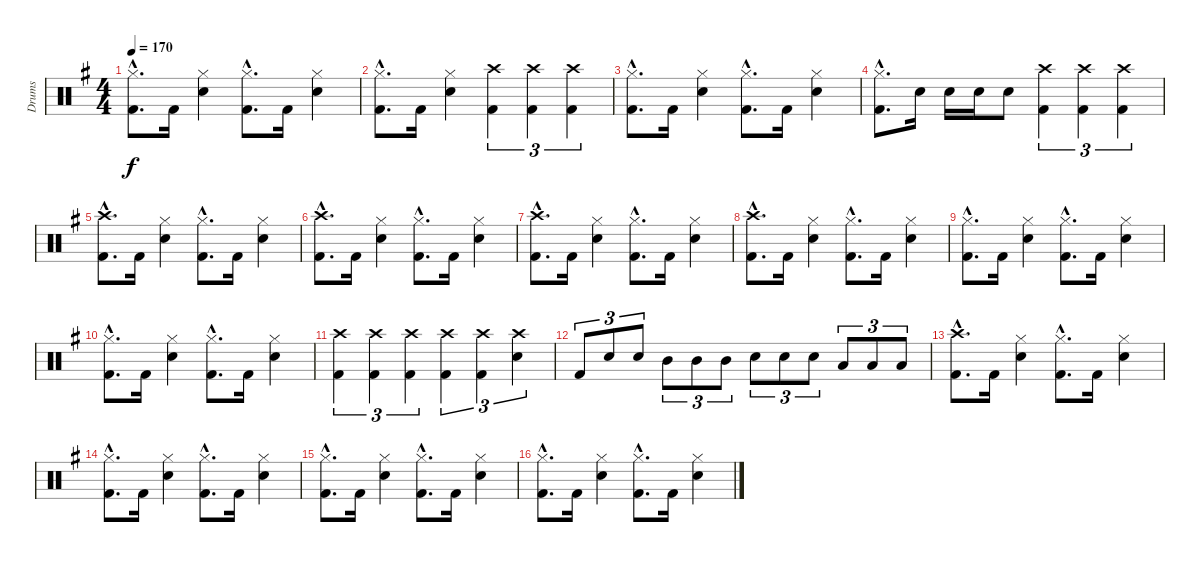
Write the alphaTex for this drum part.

\track ("Drums" "Drums") {instrument percussion}
\staff {score}
\articulation defaults
\ts (4 4)
\tempo 170
\clef neutral
\ks eminor
("Hi-Hat (closed)"{hac} "Kick (hit) 2"{hac}).8{d dy f} "Kick (hit) 2".16 ("Hi-Hat (closed)" "Snare (hit) 2").4 ("Hi-Hat (closed)"{hac} "Kick (hit) 2"{hac}).8{d} "Kick (hit) 2".16 ("Hi-Hat (closed)" "Snare (hit) 2").4 |
("Hi-Hat (closed)"{hac} "Kick (hit) 2"{hac}).8{d} "Kick (hit) 2".16 ("Hi-Hat (closed)" "Snare (hit) 2").4 ("Crash high (hit)" "Kick (hit) 2").4{tu (3 2)} ("Crash high (hit)" "Kick (hit) 2").4{tu (3 2)} ("Crash high (hit)" "Kick (hit) 2").4{tu (3 2)} |
("Hi-Hat (closed)"{hac} "Kick (hit) 2"{hac}).8{d} "Kick (hit) 2".16 ("Hi-Hat (closed)" "Snare (hit) 2").4 ("Hi-Hat (closed)"{hac} "Kick (hit) 2"{hac}).8{d} "Kick (hit) 2".16 ("Hi-Hat (closed)" "Snare (hit) 2").4 |
("Hi-Hat (closed)"{hac} "Kick (hit) 2"{hac}).8{d} "Snare (hit) 2".16 "Snare (hit) 2".16 "Snare (hit) 2".16 "Snare (hit) 2".8 ("Crash high (hit)" "Kick (hit) 2").4{tu (3 2)} ("Crash high (hit)" "Kick (hit) 2").4{tu (3 2)} ("Crash high (hit)" "Kick (hit) 2").4{tu (3 2)} |
("Crash high (hit)"{hac} "Kick (hit) 2"{hac}).8{d} "Kick (hit) 2".16 ("Hi-Hat (closed)" "Snare (hit) 2").4 ("Hi-Hat (closed)"{hac} "Kick (hit) 2"{hac}).8{d} "Kick (hit) 2".16 ("Hi-Hat (closed)" "Snare (hit) 2").4 |
("Crash high (hit)"{hac} "Kick (hit) 2"{hac}).8{d} "Kick (hit) 2".16 ("Hi-Hat (closed)" "Snare (hit) 2").4 ("Hi-Hat (closed)"{hac} "Kick (hit) 2"{hac}).8{d} "Kick (hit) 2".16 ("Hi-Hat (closed)" "Snare (hit) 2").4 |
("Crash high (hit)"{hac} "Kick (hit) 2"{hac}).8{d} "Kick (hit) 2".16 ("Hi-Hat (closed)" "Snare (hit) 2").4 ("Hi-Hat (closed)"{hac} "Kick (hit) 2"{hac}).8{d} "Kick (hit) 2".16 ("Hi-Hat (closed)" "Snare (hit) 2").4 |
("Crash high (hit)"{hac} "Kick (hit) 2"{hac}).8{d} "Kick (hit) 2".16 ("Hi-Hat (closed)" "Snare (hit) 2").4 ("Hi-Hat (closed)"{hac} "Kick (hit) 2"{hac}).8{d} "Kick (hit) 2".16 ("Hi-Hat (closed)" "Snare (hit) 2").4 |
("Hi-Hat (closed)"{hac} "Kick (hit) 2"{hac}).8{d} "Kick (hit) 2".16 ("Hi-Hat (closed)" "Snare (hit) 2").4 ("Hi-Hat (closed)"{hac} "Kick (hit) 2"{hac}).8{d} "Kick (hit) 2".16 ("Hi-Hat (closed)" "Snare (hit) 2").4 |
("Hi-Hat (closed)"{hac} "Kick (hit) 2"{hac}).8{d} "Kick (hit) 2".16 ("Hi-Hat (closed)" "Snare (hit) 2").4 ("Hi-Hat (closed)"{hac} "Kick (hit) 2"{hac}).8{d} "Kick (hit) 2".16 ("Hi-Hat (closed)" "Snare (hit) 2").4 |
("Crash high (hit)" "Kick (hit) 2").4{tu (3 2)} ("Crash high (hit)" "Kick (hit) 2").4{tu (3 2)} ("Crash high (hit)" "Kick (hit) 2").4{tu (3 2)} ("Crash high (hit)" "Kick (hit) 2").4{tu (3 2)} ("Crash high (hit)" "Kick (hit) 2").4{tu (3 2)} ("Crash high (hit)" "Snare (hit) 2").4{tu (3 2)} |
"Kick (hit) 2".8{tu (3 2)} "Snare (hit) 2".8{tu (3 2)} "Snare (hit) 2".8{tu (3 2)} "Mid Tom (hit)".8{tu (3 2)} "Mid Tom (hit)".8{tu (3 2)} "Mid Tom (hit)".8{tu (3 2)} "Snare (hit) 2".8{tu (3 2)} "Snare (hit) 2".8{tu (3 2)} "Snare (hit) 2".8{tu (3 2)} "Low Floor Tom (hit)".8{tu (3 2)} "Low Floor Tom (hit)".8{tu (3 2)} "Low Floor Tom (hit)".8{tu (3 2)} |
("Crash high (hit)"{hac} "Kick (hit) 2"{hac}).8{d} "Kick (hit) 2".16 ("Hi-Hat (closed)" "Snare (hit) 2").4 ("Hi-Hat (closed)"{hac} "Kick (hit) 2"{hac}).8{d} "Kick (hit) 2".16 ("Hi-Hat (closed)" "Snare (hit) 2").4 |
("Hi-Hat (closed)"{hac} "Kick (hit) 2"{hac}).8{d} "Kick (hit) 2".16 ("Hi-Hat (closed)" "Snare (hit) 2").4 ("Hi-Hat (closed)"{hac} "Kick (hit) 2"{hac}).8{d} "Kick (hit) 2".16 ("Hi-Hat (closed)" "Snare (hit) 2").4 |
("Hi-Hat (closed)"{hac} "Kick (hit) 2"{hac}).8{d} "Kick (hit) 2".16 ("Hi-Hat (closed)" "Snare (hit) 2").4 ("Hi-Hat (closed)"{hac} "Kick (hit) 2"{hac}).8{d} "Kick (hit) 2".16 ("Hi-Hat (closed)" "Snare (hit) 2").4 |
("Hi-Hat (closed)"{hac} "Kick (hit) 2"{hac}).8{d} "Kick (hit) 2".16 ("Hi-Hat (closed)" "Snare (hit) 2").4 ("Hi-Hat (closed)"{hac} "Kick (hit) 2"{hac}).8{d} "Kick (hit) 2".16 ("Hi-Hat (closed)" "Snare (hit) 2").4
